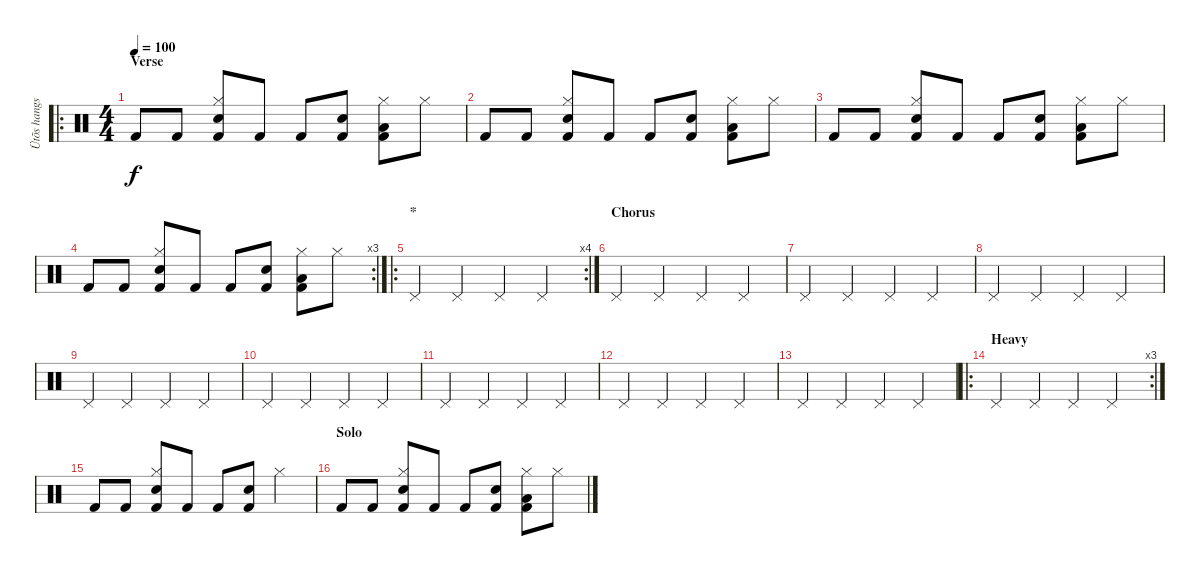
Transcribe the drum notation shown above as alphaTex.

\track ("Ütõs hangszer" "Ütõs hangs") {instrument percussion}
\staff {score}
\articulation defaults
\ro
\ts (4 4)
\section ("" "Verse")
\tempo 100
\clef neutral
\ks c "Kick (hit) 2".8{dy f} "Kick (hit) 2".8
("Kick (hit) 2" "Hi-Hat (closed)" "Snare (hit) 2").8 "Kick (hit) 2".8 "Kick (hit) 2".8 ("Kick (hit) 2" "Snare (hit) 2").8 ("Kick (hit) 2" "Hi-Hat (closed)" "Low Tom (hit)").8 "Hi-Hat (closed)".8 |
"Kick (hit) 2".8 "Kick (hit) 2".8 ("Kick (hit) 2" "Hi-Hat (closed)" "Snare (hit) 2").8 "Kick (hit) 2".8 "Kick (hit) 2".8 ("Kick (hit) 2" "Snare (hit) 2").8 ("Kick (hit) 2" "Hi-Hat (closed)" "Low Tom (hit)").8 "Hi-Hat (closed)".8 |
"Kick (hit) 2".8 "Kick (hit) 2".8 ("Kick (hit) 2" "Hi-Hat (closed)" "Snare (hit) 2").8 "Kick (hit) 2".8 "Kick (hit) 2".8 ("Kick (hit) 2" "Snare (hit) 2").8 ("Kick (hit) 2" "Hi-Hat (closed)" "Low Tom (hit)").8 "Hi-Hat (closed)".8 |
\rc 3 "Kick (hit) 2".8 "Kick (hit) 2".8
("Kick (hit) 2" "Hi-Hat (closed)" "Snare (hit) 2").8 "Kick (hit) 2".8 "Kick (hit) 2".8 ("Kick (hit) 2" "Snare (hit) 2").8 ("Kick (hit) 2" "Hi-Hat (closed)" "Low Tom (hit)").8 "Hi-Hat (closed)".8 |
\ro
\rc 4
\section ("" "*")
"Pedal Hi-Hat (hit)".4 "Pedal Hi-Hat (hit)".4 "Pedal Hi-Hat (hit)".4 "Pedal Hi-Hat (hit)".4 |
\section ("" "Chorus")
"Pedal Hi-Hat (hit)".4 "Pedal Hi-Hat (hit)".4 "Pedal Hi-Hat (hit)".4 "Pedal Hi-Hat (hit)".4 |
"Pedal Hi-Hat (hit)".4 "Pedal Hi-Hat (hit)".4 "Pedal Hi-Hat (hit)".4 "Pedal Hi-Hat (hit)".4 |
"Pedal Hi-Hat (hit)".4 "Pedal Hi-Hat (hit)".4 "Pedal Hi-Hat (hit)".4 "Pedal Hi-Hat (hit)".4 |
"Pedal Hi-Hat (hit)".4 "Pedal Hi-Hat (hit)".4 "Pedal Hi-Hat (hit)".4 "Pedal Hi-Hat (hit)".4 |
"Pedal Hi-Hat (hit)".4 "Pedal Hi-Hat (hit)".4 "Pedal Hi-Hat (hit)".4 "Pedal Hi-Hat (hit)".4 |
"Pedal Hi-Hat (hit)".4 "Pedal Hi-Hat (hit)".4 "Pedal Hi-Hat (hit)".4 "Pedal Hi-Hat (hit)".4 |
"Pedal Hi-Hat (hit)".4 "Pedal Hi-Hat (hit)".4 "Pedal Hi-Hat (hit)".4 "Pedal Hi-Hat (hit)".4 |
"Pedal Hi-Hat (hit)".4 "Pedal Hi-Hat (hit)".4 "Pedal Hi-Hat (hit)".4 "Pedal Hi-Hat (hit)".4 |
\ro
\rc 3
\section ("" "Heavy")
"Pedal Hi-Hat (hit)".4 "Pedal Hi-Hat (hit)".4 "Pedal Hi-Hat (hit)".4 "Pedal Hi-Hat (hit)".4 |
"Kick (hit) 2".8 "Kick (hit) 2".8 ("Kick (hit) 2" "Hi-Hat (closed)" "Snare (hit) 2").8 "Kick (hit) 2".8 "Kick (hit) 2".8 ("Kick (hit) 2" "Snare (hit) 2").8 "Hi-Hat (closed)".4 |
\section ("" "Solo")
"Kick (hit) 2".8 "Kick (hit) 2".8 ("Kick (hit) 2" "Hi-Hat (closed)" "Snare (hit) 2").8 "Kick (hit) 2".8 "Kick (hit) 2".8 ("Kick (hit) 2" "Snare (hit) 2").8 ("Kick (hit) 2" "Hi-Hat (closed)" "Low Tom (hit)").8 "Hi-Hat (closed)".8
